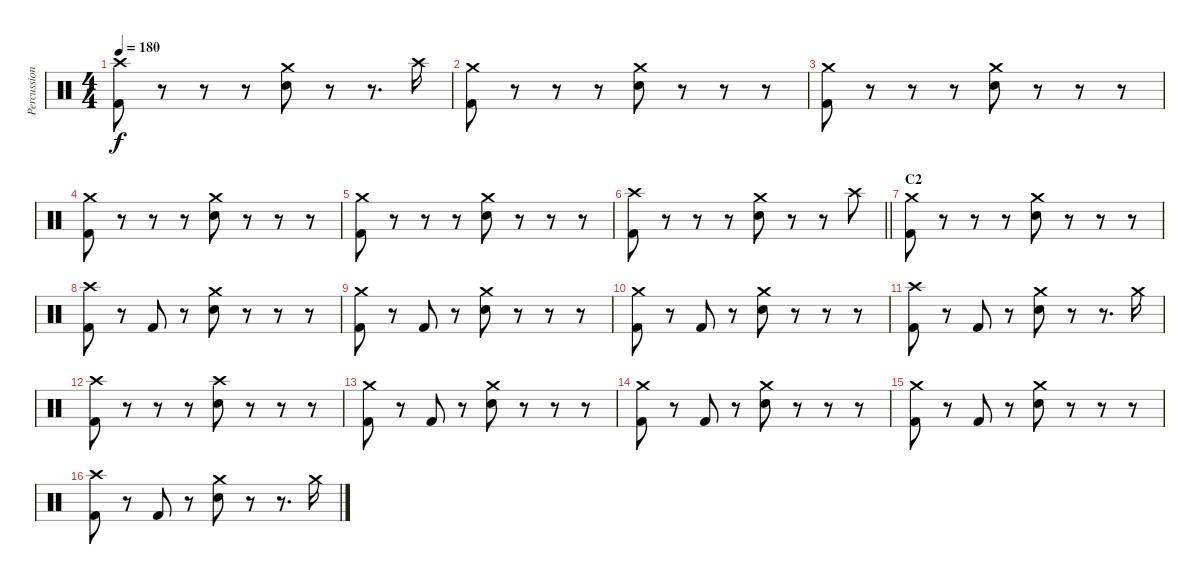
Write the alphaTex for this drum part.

\track ("Percussion" "Percussion") {instrument percussion}
\staff {score}
\articulation defaults
\ts (4 4)
\tempo 180
\clef neutral
\ks c
("Crash high (hit)" "Kick (hit) 2").8{dy f} r.8 r.8 r.8 ("Crash medium (hit)" "Snare (hit) 2").8 r.8 r.8{d} "Crash high (hit)".16 |
("Crash medium (hit)" "Kick (hit) 2").8 r.8 r.8 r.8 ("Crash medium (hit)" "Snare (hit) 2").8 r.8 r.8 r.8 |
("Crash medium (hit)" "Kick (hit) 2").8 r.8 r.8 r.8 ("Crash medium (hit)" "Snare (hit) 2").8 r.8 r.8 r.8 |
("Crash medium (hit)" "Kick (hit) 2").8 r.8 r.8 r.8 ("Crash medium (hit)" "Snare (hit) 2").8 r.8 r.8 r.8 |
("Crash medium (hit)" "Kick (hit) 2").8 r.8 r.8 r.8 ("Crash medium (hit)" "Snare (hit) 2").8 r.8 r.8 r.8 |
\barLineRight lightlight
("Crash high (hit)" "Kick (hit) 2").8 r.8 r.8 r.8 ("Crash medium (hit)" "Snare (hit) 2").8 r.8 r.8 "Crash high (hit)".8 |
\section ("" "C2")
("Crash medium (hit)" "Kick (hit) 2").8 r.8 r.8 r.8 ("Crash medium (hit)" "Snare (hit) 2").8 r.8 r.8 r.8 |
("Crash high (hit)" "Kick (hit) 2").8 r.8 "Kick (hit) 2".8 r.8 ("Crash medium (hit)" "Snare (hit) 2").8 r.8 r.8 r.8 |
("Crash medium (hit)" "Kick (hit) 2").8 r.8 "Kick (hit) 2".8 r.8 ("Crash medium (hit)" "Snare (hit) 2").8 r.8 r.8 r.8 |
("Crash medium (hit)" "Kick (hit) 2").8 r.8 "Kick (hit) 2".8 r.8 ("Crash medium (hit)" "Snare (hit) 2").8 r.8 r.8 r.8 |
("Crash high (hit)" "Kick (hit) 2").8 r.8 "Kick (hit) 2".8 r.8 ("Crash medium (hit)" "Snare (hit) 2").8 r.8 r.8{d} "Crash medium (hit)".16 |
("Crash high (hit)" "Kick (hit) 2").8 r.8 r.8 r.8 ("Crash high (hit)" "Snare (hit) 2").8 r.8 r.8 r.8 |
("Crash medium (hit)" "Kick (hit) 2").8 r.8 "Kick (hit) 2".8 r.8 ("Crash medium (hit)" "Snare (hit) 2").8 r.8 r.8 r.8 |
("Crash medium (hit)" "Kick (hit) 2").8 r.8 "Kick (hit) 2".8 r.8 ("Crash medium (hit)" "Snare (hit) 2").8 r.8 r.8 r.8 |
("Crash medium (hit)" "Kick (hit) 2").8 r.8 "Kick (hit) 2".8 r.8 ("Crash medium (hit)" "Snare (hit) 2").8 r.8 r.8 r.8 |
("Crash high (hit)" "Kick (hit) 2").8 r.8 "Kick (hit) 2".8 r.8 ("Crash medium (hit)" "Snare (hit) 2").8 r.8 r.8{d} "Crash medium (hit)".16
